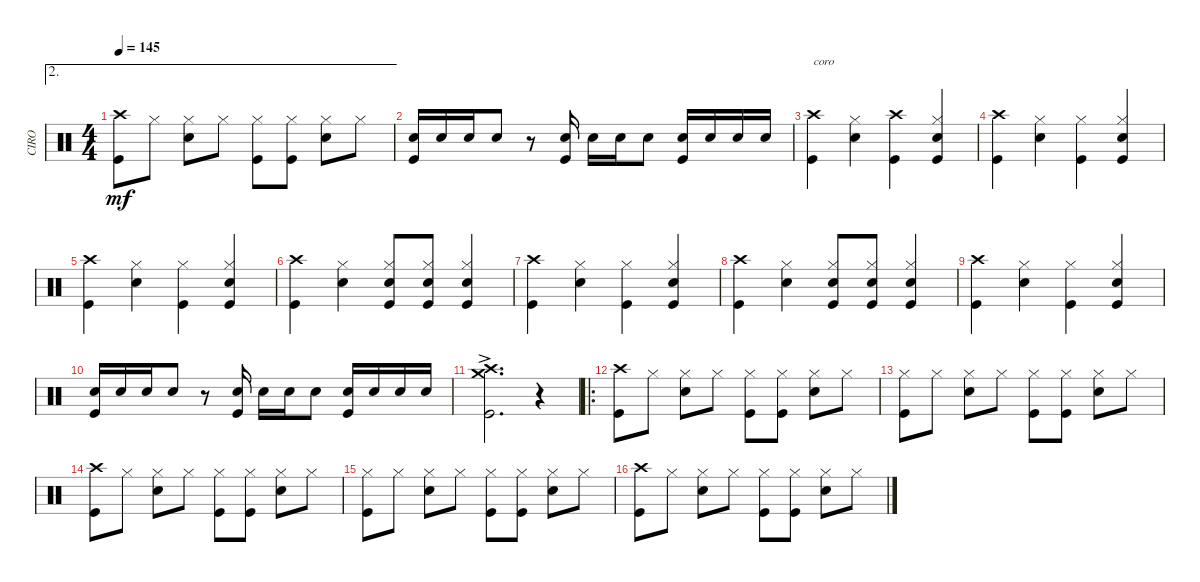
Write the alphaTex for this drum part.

\track ("CIRO" "CIRO") {instrument percussion}
\staff {score}
\articulation defaults
\ae 2
\ts (4 4)
\tempo 145
\clef neutral
\ks c
("Crash high (hit)" "Kick (hit)").8{dy mf} "Hi-Hat (closed)".8 ("Hi-Hat (closed)" "Snare (hit) 2").8 "Hi-Hat (closed)".8 ("Hi-Hat (closed)" "Kick (hit)").8 ("Hi-Hat (closed)" "Kick (hit)").8 ("Hi-Hat (closed)" "Snare (hit) 2").8 "Hi-Hat (closed)".8 |
("Snare (hit) 2" "Kick (hit)").16 "Snare (hit) 2".16 "Snare (hit) 2".16 "Snare (hit) 2".8 r.8 ("Snare (hit) 2" "Kick (hit)").16 "Snare (hit) 2".16 "Snare (hit) 2".16 "Snare (hit) 2".8 ("Snare (hit) 2" "Kick (hit)").16 "Snare (hit) 2".16 "Snare (hit) 2".16 "Snare (hit) 2".16 |
("Crash high (hit)" "Kick (hit)").4{txt "coro"} ("Hi-Hat (closed)" "Snare (hit) 2").4 ("Crash high (hit)" "Kick (hit)").4 ("Hi-Hat (closed)" "Snare (hit) 2" "Kick (hit)").4 |
("Crash high (hit)" "Kick (hit)").4 ("Hi-Hat (closed)" "Snare (hit) 2").4 ("Hi-Hat (closed)" "Kick (hit)").4 ("Hi-Hat (closed)" "Snare (hit) 2" "Kick (hit)").4 |
("Crash high (hit)" "Kick (hit)").4 ("Hi-Hat (closed)" "Snare (hit) 2").4 ("Hi-Hat (closed)" "Kick (hit)").4 ("Hi-Hat (closed)" "Snare (hit) 2" "Kick (hit)").4 |
("Crash high (hit)" "Kick (hit)").4 ("Hi-Hat (closed)" "Snare (hit) 2").4 ("Hi-Hat (closed)" "Snare (hit) 2" "Kick (hit)").8 ("Hi-Hat (closed)" "Snare (hit) 2" "Kick (hit)").8 ("Hi-Hat (closed)" "Snare (hit) 2" "Kick (hit)").4 |
("Crash high (hit)" "Kick (hit)").4 ("Hi-Hat (closed)" "Snare (hit) 2").4 ("Hi-Hat (closed)" "Kick (hit)").4 ("Hi-Hat (closed)" "Snare (hit) 2" "Kick (hit)").4 |
("Crash high (hit)" "Kick (hit)").4 ("Hi-Hat (closed)" "Snare (hit) 2").4 ("Hi-Hat (closed)" "Snare (hit) 2" "Kick (hit)").8 ("Hi-Hat (closed)" "Snare (hit) 2" "Kick (hit)").8 ("Hi-Hat (closed)" "Snare (hit) 2" "Kick (hit)").4 |
("Crash high (hit)" "Kick (hit)").4 ("Hi-Hat (closed)" "Snare (hit) 2").4 ("Hi-Hat (closed)" "Kick (hit)").4 ("Hi-Hat (closed)" "Snare (hit) 2" "Kick (hit)").4 |
("Snare (hit) 2" "Kick (hit)").16 "Snare (hit) 2".16 "Snare (hit) 2".16 "Snare (hit) 2".8 r.8 ("Snare (hit) 2" "Kick (hit)").16 "Snare (hit) 2".16 "Snare (hit) 2".16 "Snare (hit) 2".8 ("Snare (hit) 2" "Kick (hit)").16 "Snare (hit) 2".16 "Snare (hit) 2".16 "Snare (hit) 2".16 |
("Crash medium (hit)" "Crash high (hit)" "Kick (hit)"{ac}).2{d} r.4 |
\ro
("Crash high (hit)" "Kick (hit)").8 "Hi-Hat (closed)".8 ("Hi-Hat (closed)" "Snare (hit) 2").8 "Hi-Hat (closed)".8 ("Hi-Hat (closed)" "Kick (hit)").8 ("Hi-Hat (closed)" "Kick (hit)").8 ("Hi-Hat (closed)" "Snare (hit) 2").8 "Hi-Hat (closed)".8 |
("Hi-Hat (closed)" "Kick (hit)").8 "Hi-Hat (closed)".8 ("Hi-Hat (closed)" "Snare (hit) 2").8 "Hi-Hat (closed)".8 ("Hi-Hat (closed)" "Kick (hit)").8 ("Hi-Hat (closed)" "Kick (hit)").8 ("Hi-Hat (closed)" "Snare (hit) 2").8 "Hi-Hat (closed)".8 |
("Crash high (hit)" "Kick (hit)").8 "Hi-Hat (closed)".8 ("Hi-Hat (closed)" "Snare (hit) 2").8 "Hi-Hat (closed)".8 ("Hi-Hat (closed)" "Kick (hit)").8 ("Hi-Hat (closed)" "Kick (hit)").8 ("Hi-Hat (closed)" "Snare (hit) 2").8 "Hi-Hat (closed)".8 |
("Hi-Hat (closed)" "Kick (hit)").8 "Hi-Hat (closed)".8 ("Hi-Hat (closed)" "Snare (hit) 2").8 "Hi-Hat (closed)".8 ("Hi-Hat (closed)" "Kick (hit)").8 ("Hi-Hat (closed)" "Kick (hit)").8 ("Hi-Hat (closed)" "Snare (hit) 2").8 "Hi-Hat (closed)".8 |
("Crash high (hit)" "Kick (hit)").8 "Hi-Hat (closed)".8 ("Hi-Hat (closed)" "Snare (hit) 2").8 "Hi-Hat (closed)".8 ("Hi-Hat (closed)" "Kick (hit)").8 ("Hi-Hat (closed)" "Kick (hit)").8 ("Hi-Hat (closed)" "Snare (hit) 2").8 "Hi-Hat (closed)".8
